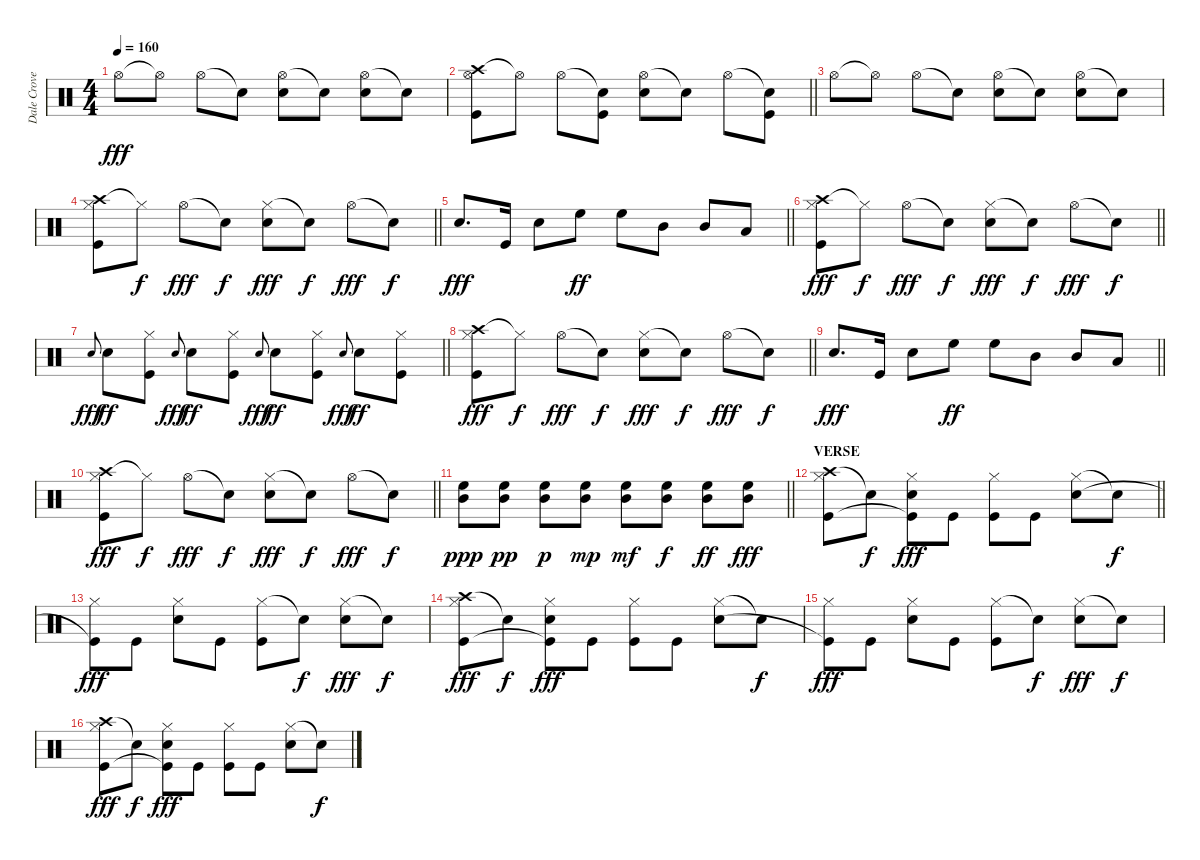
\track ("Dale Crover" "Dale Crove") {instrument percussion}
\staff {score}
\articulation defaults
\ts (4 4)
\tempo 160
\clef neutral
\ks c "Hi-Hat (open)".8{dy fff} "Hi-Hat (open)"{t}.8 "Hi-Hat (open)".8 "Snare (hit)"{t}.8
("Hi-Hat (open)" "Snare (hit) 2").8 "Snare (hit)"{t}.8 ("Hi-Hat (open)" "Snare (hit) 2").8 "Snare (hit)"{t}.8 |
\barLineRight lightlight
("Crash high (hit)" "Hi-Hat (open)" "Kick (hit)").8 "Hi-Hat (open)"{t}.8 "Hi-Hat (open)".8 ("Snare (hit)"{t} "Kick (hit)").8 ("Hi-Hat (open)" "Snare (hit) 2").8 "Snare (hit)"{t}.8 "Hi-Hat (open)".8 ("Snare (hit)"{t} "Kick (hit)").8 |
"Hi-Hat (open)".8 "Hi-Hat (open)"{t}.8 "Hi-Hat (open)".8 "Snare (hit)"{t}.8 ("Hi-Hat (open)" "Snare (hit) 2").8 "Snare (hit)"{t}.8 ("Hi-Hat (open)" "Snare (hit) 2").8 "Snare (hit)"{t}.8 |
\barLineRight lightlight
("Crash high (hit)" "Hi-Hat (closed)" "Kick (hit)").8 "Hi-Hat (closed)"{t}.8{dy f} "Hi-Hat (open)".8{dy fff} "Snare (hit)"{t}.8{dy f} ("Hi-Hat (closed)" "Snare (hit) 2").8{dy fff} "Snare (hit)"{t}.8{dy f} "Hi-Hat (open)".8{dy fff} "Snare (hit)"{t}.8{dy f} |
\barLineRight lightlight "Snare (hit) 2".8{d dy fff} "Kick (hit)".16 "Snare (hit) 2".8 "High Floor Tom (hit)".8{dy ff} "High Floor Tom (hit)".8 "Mid Tom (hit)".8 "Mid Tom (hit)".8 "Low Tom (hit)".8
|
\barLineRight lightlight
("Crash high (hit)" "Hi-Hat (closed)" "Kick (hit)").8{dy fff} "Hi-Hat (closed)"{t}.8{dy f} "Hi-Hat (open)".8{dy fff} "Snare (hit)"{t}.8{dy f} ("Hi-Hat (closed)" "Snare (hit) 2").8{dy fff} "Snare (hit)"{t}.8{dy f} "Hi-Hat (open)".8{dy fff} "Snare (hit)"{t}.8{dy f} |
\barLineRight lightlight "Snare (hit) 2".8{gr onbeat dy fff} "Snare (hit) 2".8{dy ff}
("Hi-Hat (closed)" "Kick (hit)").8 "Snare (hit) 2".8{gr onbeat dy fff} "Snare (hit) 2".8{dy ff} ("Hi-Hat (closed)" "Kick (hit)").8 "Snare (hit) 2".8{gr onbeat dy fff} "Snare (hit) 2".8{dy ff} ("Hi-Hat (closed)" "Kick (hit)").8 "Snare (hit) 2".8{gr onbeat dy fff} "Snare (hit) 2".8{dy ff} ("Hi-Hat (closed)" "Kick (hit)").8 |
\barLineRight lightlight
("Crash high (hit)" "Hi-Hat (closed)" "Kick (hit)").8{dy fff} "Hi-Hat (closed)"{t}.8{dy f} "Hi-Hat (open)".8{dy fff} "Snare (hit)"{t}.8{dy f} ("Hi-Hat (closed)" "Snare (hit) 2").8{dy fff} "Snare (hit)"{t}.8{dy f} "Hi-Hat (open)".8{dy fff} "Snare (hit)"{t}.8{dy f} |
\barLineRight lightlight "Snare (hit) 2".8{d dy fff} "Kick (hit)".16 "Snare (hit) 2".8 "High Floor Tom (hit)".8{dy ff} "High Floor Tom (hit)".8 "Mid Tom (hit)".8 "Mid Tom (hit)".8 "Low Tom (hit)".8
|
\barLineRight lightlight
("Crash high (hit)" "Hi-Hat (closed)" "Kick (hit)").8{dy fff} "Hi-Hat (closed)"{t}.8{dy f} "Hi-Hat (open)".8{dy fff} "Snare (hit)"{t}.8{dy f} ("Hi-Hat (closed)" "Snare (hit) 2").8{dy fff} "Snare (hit)"{t}.8{dy f} "Hi-Hat (open)".8{dy fff} "Snare (hit)"{t}.8{dy f} |
\barLineRight lightlight
("Mid Tom (hit)" "High Floor Tom (hit)").8{dy ppp} ("Mid Tom (hit)" "High Floor Tom (hit)").8{dy pp} ("Mid Tom (hit)" "High Floor Tom (hit)").8{dy p} ("Mid Tom (hit)" "High Floor Tom (hit)").8{dy mp} ("Mid Tom (hit)" "High Floor Tom (hit)").8{dy mf} ("Mid Tom (hit)" "High Floor Tom (hit)").8{dy f} ("Mid Tom (hit)" "High Floor Tom (hit)").8{dy ff} ("Mid Tom (hit)" "High Floor Tom (hit)").8{dy fff} |
\section ("" "VERSE")
\barLineRight lightlight
("Crash high (hit)" "Hi-Hat (closed)" "Kick (hit)").8 "Snare (hit)"{t}.8{dy f} ("Hi-Hat (closed)" "Snare (hit) 2" "Kick (hit)"{t}).8{dy fff} "Kick (hit)".8 ("Hi-Hat (closed)" "Kick (hit)").8 "Kick (hit)".8 ("Hi-Hat (closed)" "Snare (hit) 2").8 "Snare (hit)"{t}.8{dy f} |
("Hi-Hat (closed)" "Kick (hit)"{t}).8{dy fff} "Kick (hit)".8 ("Hi-Hat (closed)" "Snare (hit) 2").8 "Kick (hit)".8 ("Hi-Hat (closed)" "Kick (hit)").8 "Snare (hit)"{t}.8{dy f} ("Hi-Hat (closed)" "Snare (hit) 2").8{dy fff} "Snare (hit)"{t}.8{dy f} |
("Crash high (hit)" "Hi-Hat (closed)" "Kick (hit)").8{dy fff} "Snare (hit)"{t}.8{dy f} ("Hi-Hat (closed)" "Snare (hit) 2" "Kick (hit)"{t}).8{dy fff} "Kick (hit)".8 ("Hi-Hat (closed)" "Kick (hit)").8 "Kick (hit)".8 ("Hi-Hat (closed)" "Snare (hit) 2").8 "Snare (hit)"{t}.8{dy f} |
("Hi-Hat (closed)" "Kick (hit)"{t}).8{dy fff} "Kick (hit)".8 ("Hi-Hat (closed)" "Snare (hit) 2").8 "Kick (hit)".8 ("Hi-Hat (closed)" "Kick (hit)").8 "Snare (hit)"{t}.8{dy f} ("Hi-Hat (closed)" "Snare (hit) 2").8{dy fff} "Snare (hit)"{t}.8{dy f} |
("Crash high (hit)" "Hi-Hat (closed)" "Kick (hit)").8{dy fff} "Snare (hit)"{t}.8{dy f} ("Hi-Hat (closed)" "Snare (hit) 2" "Kick (hit)"{t}).8{dy fff} "Kick (hit)".8 ("Hi-Hat (closed)" "Kick (hit)").8 "Kick (hit)".8 ("Hi-Hat (closed)" "Snare (hit) 2").8 "Snare (hit)"{t}.8{dy f}
